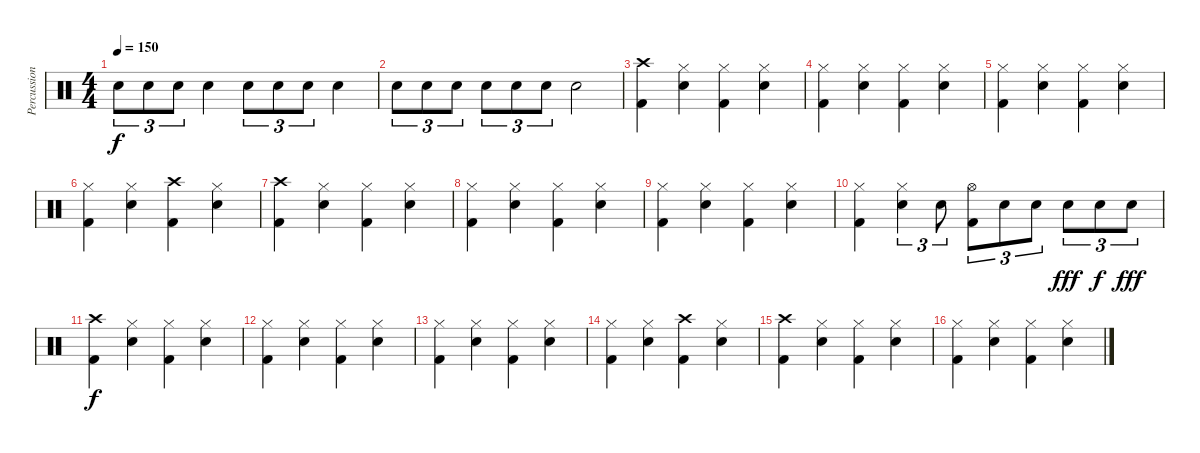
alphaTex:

\track ("Percussion" "Percussion") {instrument percussion}
\staff {score}
\articulation defaults
\ts (4 4)
\tempo 150
\clef neutral
\ks c "Electric Snare (hit)".8{tu (3 2) dy f} "Electric Snare (hit)".8{tu (3 2)} "Electric Snare (hit)".8{tu (3 2)} "Electric Snare (hit)".4 "Electric Snare (hit)".8{tu (3 2)} "Electric Snare (hit)".8{tu (3 2)} "Electric Snare (hit)".8{tu (3 2)} "Electric Snare (hit)".4
|
"Electric Snare (hit)".8{tu (3 2)} "Electric Snare (hit)".8{tu (3 2)} "Electric Snare (hit)".8{tu (3 2)} "Electric Snare (hit)".8{tu (3 2)} "Electric Snare (hit)".8{tu (3 2)} "Electric Snare (hit)".8{tu (3 2)} "Electric Snare (hit)".2 |
("Crash high (hit)" "Kick (hit) 2").4 ("Hi-Hat (closed)" "Electric Snare (hit)").4 ("Hi-Hat (closed)" "Kick (hit) 2").4 ("Hi-Hat (closed)" "Electric Snare (hit)").4 |
("Hi-Hat (closed)" "Kick (hit) 2").4 ("Hi-Hat (closed)" "Electric Snare (hit)").4 ("Hi-Hat (closed)" "Kick (hit) 2").4 ("Hi-Hat (closed)" "Electric Snare (hit)").4 |
("Hi-Hat (closed)" "Kick (hit) 2").4 ("Hi-Hat (closed)" "Electric Snare (hit)").4 ("Hi-Hat (closed)" "Kick (hit) 2").4 ("Hi-Hat (closed)" "Electric Snare (hit)").4 |
("Hi-Hat (closed)" "Kick (hit) 2").4 ("Hi-Hat (closed)" "Electric Snare (hit)").4 ("Crash high (hit)" "Kick (hit) 2").4 ("Hi-Hat (closed)" "Electric Snare (hit)").4 |
("Crash high (hit)" "Kick (hit) 2").4 ("Hi-Hat (closed)" "Electric Snare (hit)").4 ("Hi-Hat (closed)" "Kick (hit) 2").4 ("Hi-Hat (closed)" "Electric Snare (hit)").4 |
("Hi-Hat (closed)" "Kick (hit) 2").4 ("Hi-Hat (closed)" "Electric Snare (hit)").4 ("Hi-Hat (closed)" "Kick (hit) 2").4 ("Hi-Hat (closed)" "Electric Snare (hit)").4 |
("Hi-Hat (closed)" "Kick (hit) 2").4 ("Hi-Hat (closed)" "Electric Snare (hit)").4 ("Hi-Hat (closed)" "Kick (hit) 2").4 ("Hi-Hat (closed)" "Electric Snare (hit)").4 |
("Hi-Hat (closed)" "Kick (hit) 2").4 ("Hi-Hat (closed)" "Electric Snare (hit)").4{tu (3 2)} "Electric Snare (hit)".8{tu (3 2)} ("Hi-Hat (open)" "Kick (hit) 2").8{tu (3 2)} "Electric Snare (hit)".8{tu (3 2)} "Electric Snare (hit)".8{tu (3 2)} "Electric Snare (hit)".8{tu (3 2) dy fff} "Electric Snare (hit)".8{tu (3 2) dy f} "Electric Snare (hit)".8{tu (3 2) dy fff} |
("Crash high (hit)" "Kick (hit) 2").4{dy f} ("Hi-Hat (closed)" "Electric Snare (hit)").4 ("Hi-Hat (closed)" "Kick (hit) 2").4 ("Hi-Hat (closed)" "Electric Snare (hit)").4 |
("Hi-Hat (closed)" "Kick (hit) 2").4 ("Hi-Hat (closed)" "Electric Snare (hit)").4 ("Hi-Hat (closed)" "Kick (hit) 2").4 ("Hi-Hat (closed)" "Electric Snare (hit)").4 |
("Hi-Hat (closed)" "Kick (hit) 2").4 ("Hi-Hat (closed)" "Electric Snare (hit)").4 ("Hi-Hat (closed)" "Kick (hit) 2").4 ("Hi-Hat (closed)" "Electric Snare (hit)").4 |
("Hi-Hat (closed)" "Kick (hit) 2").4 ("Hi-Hat (closed)" "Electric Snare (hit)").4 ("Crash high (hit)" "Kick (hit) 2").4 ("Hi-Hat (closed)" "Electric Snare (hit)").4 |
("Crash high (hit)" "Kick (hit) 2").4 ("Hi-Hat (closed)" "Electric Snare (hit)").4 ("Hi-Hat (closed)" "Kick (hit) 2").4 ("Hi-Hat (closed)" "Electric Snare (hit)").4 |
("Hi-Hat (closed)" "Kick (hit) 2").4 ("Hi-Hat (closed)" "Electric Snare (hit)").4 ("Hi-Hat (closed)" "Kick (hit) 2").4 ("Hi-Hat (closed)" "Electric Snare (hit)").4
